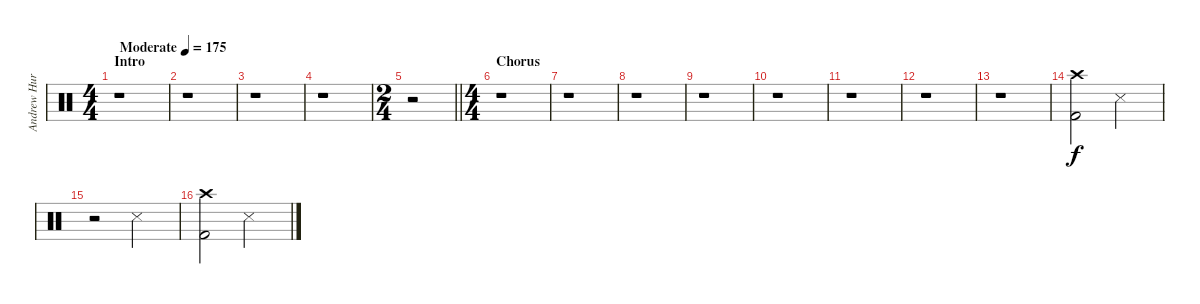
\track ("Andrew Hurley (Drums)" "Andrew Hur") {instrument percussion}
\staff {score}
\articulation defaults
\ts (4 4)
\section ("" "Intro")
\tempo (175 "Moderate")
\clef neutral
\ks c
r.1{dy f} |
r.1 |
r.1 |
r.1 |
\ts (2 4)
\barLineRight lightlight
r.2 |
\ts (4 4)
\section ("" "Chorus")
r.1 |
r.1 |
r.1 |
r.1 |
r.1 |
r.1 |
r.1 |
r.1 |
("Crash high (hit)" "Kick (hit) 2").2 "Snare (side stick) 3".2 |
r.2 "Snare (side stick) 3".2 |
("Crash high (hit)" "Kick (hit) 2").2 "Snare (side stick) 3".2
